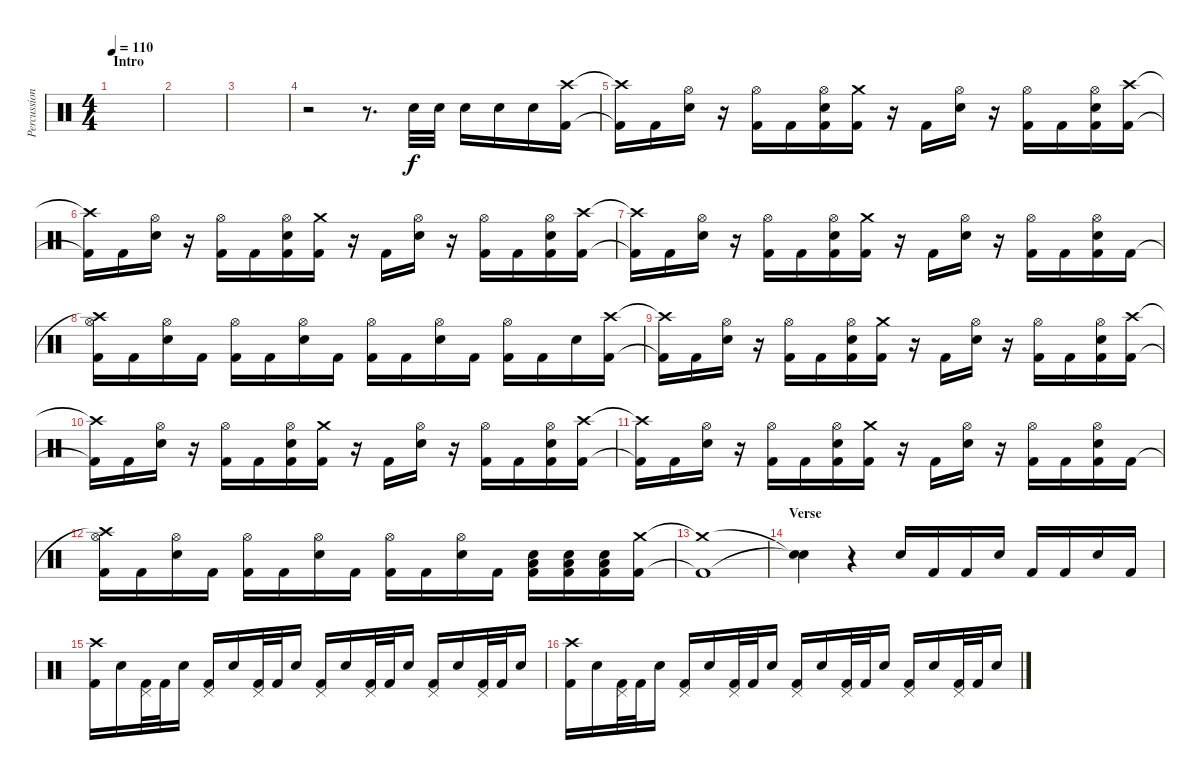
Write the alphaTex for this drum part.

\track ("Percussion" "Percussion") {instrument percussion}
\staff {score}
\articulation defaults
\ts (4 4)
\section ("" "Intro")
\tempo 110
\clef neutral
\ks c
|
|
|
r.2 r.8{d} "Snare (hit) 2".32 "Snare (hit) 2".32 "Snare (hit) 2".16 "Snare (hit) 2".16 "Snare (hit) 2".16 ("Crash high (hit)" "Kick (hit) 2").16 |
("Crash high (hit)"{t} "Kick (hit) 2"{t}).16 "Kick (hit) 2".16 ("Hi-Hat (open)" "Snare (hit) 2").16 r.16 ("Hi-Hat (open)" "Kick (hit) 2").16 "Kick (hit) 2".16 ("Hi-Hat (open)" "Snare (hit) 2" "Kick (hit) 2").16 ("Crash medium (hit)" "Kick (hit) 2").16 r.16 "Kick (hit) 2".16 ("Hi-Hat (open)" "Snare (hit) 2").16 r.16 ("Hi-Hat (open)" "Kick (hit) 2").16 "Kick (hit) 2".16 ("Hi-Hat (open)" "Snare (hit) 2" "Kick (hit) 2").16 ("Crash high (hit)" "Kick (hit) 2").16 |
("Crash high (hit)"{t} "Kick (hit) 2"{t}).16 "Kick (hit) 2".16 ("Hi-Hat (open)" "Snare (hit) 2").16 r.16 ("Hi-Hat (open)" "Kick (hit) 2").16 "Kick (hit) 2".16 ("Hi-Hat (open)" "Snare (hit) 2" "Kick (hit) 2").16 ("Crash medium (hit)" "Kick (hit) 2").16 r.16 "Kick (hit) 2".16 ("Hi-Hat (open)" "Snare (hit) 2").16 r.16 ("Hi-Hat (open)" "Kick (hit) 2").16 "Kick (hit) 2".16 ("Hi-Hat (open)" "Snare (hit) 2" "Kick (hit) 2").16 ("Crash high (hit)" "Kick (hit) 2").16 |
("Crash high (hit)"{t} "Kick (hit) 2"{t}).16 "Kick (hit) 2".16 ("Hi-Hat (open)" "Snare (hit) 2").16 r.16 ("Hi-Hat (open)" "Kick (hit) 2").16 "Kick (hit) 2".16 ("Hi-Hat (open)" "Snare (hit) 2" "Kick (hit) 2").16 ("Crash medium (hit)" "Kick (hit) 2").16 r.16 "Kick (hit) 2".16 ("Hi-Hat (open)" "Snare (hit) 2").16 r.16 ("Hi-Hat (open)" "Kick (hit) 2").16 "Kick (hit) 2".16 ("Hi-Hat (open)" "Snare (hit) 2" "Kick (hit) 2").16 "Kick (hit) 2".16 |
("Crash high (hit)"{t} "Hi-Hat (open)" "Kick (hit) 2").16 "Kick (hit) 2".16 ("Hi-Hat (open)" "Snare (hit) 2").16 "Kick (hit) 2".16 ("Hi-Hat (open)" "Kick (hit) 2").16 "Kick (hit) 2".16 ("Hi-Hat (open)" "Snare (hit) 2").16 "Kick (hit) 2".16 ("Hi-Hat (open)" "Kick (hit) 2").16 "Kick (hit) 2".16 ("Hi-Hat (open)" "Snare (hit) 2").16 "Kick (hit) 2".16 ("Hi-Hat (open)" "Kick (hit) 2").16 "Kick (hit) 2".16 "Snare (hit) 2".16 ("Crash high (hit)" "Kick (hit) 2").16 |
("Crash high (hit)"{t} "Kick (hit) 2"{t}).16 "Kick (hit) 2".16 ("Hi-Hat (open)" "Snare (hit) 2").16 r.16 ("Hi-Hat (open)" "Kick (hit) 2").16 "Kick (hit) 2".16 ("Hi-Hat (open)" "Snare (hit) 2" "Kick (hit) 2").16 ("Crash medium (hit)" "Kick (hit) 2").16 r.16 "Kick (hit) 2".16 ("Hi-Hat (open)" "Snare (hit) 2").16 r.16 ("Hi-Hat (open)" "Kick (hit) 2").16 "Kick (hit) 2".16 ("Hi-Hat (open)" "Snare (hit) 2" "Kick (hit) 2").16 ("Crash high (hit)" "Kick (hit) 2").16 |
("Crash high (hit)"{t} "Kick (hit) 2"{t}).16 "Kick (hit) 2".16 ("Hi-Hat (open)" "Snare (hit) 2").16 r.16 ("Hi-Hat (open)" "Kick (hit) 2").16 "Kick (hit) 2".16 ("Hi-Hat (open)" "Snare (hit) 2" "Kick (hit) 2").16 ("Crash medium (hit)" "Kick (hit) 2").16 r.16 "Kick (hit) 2".16 ("Hi-Hat (open)" "Snare (hit) 2").16 r.16 ("Hi-Hat (open)" "Kick (hit) 2").16 "Kick (hit) 2".16 ("Hi-Hat (open)" "Snare (hit) 2" "Kick (hit) 2").16 ("Crash high (hit)" "Kick (hit) 2").16 |
("Crash high (hit)"{t} "Kick (hit) 2"{t}).16 "Kick (hit) 2".16 ("Hi-Hat (open)" "Snare (hit) 2").16 r.16 ("Hi-Hat (open)" "Kick (hit) 2").16 "Kick (hit) 2".16 ("Hi-Hat (open)" "Snare (hit) 2" "Kick (hit) 2").16 ("Crash medium (hit)" "Kick (hit) 2").16 r.16 "Kick (hit) 2".16 ("Hi-Hat (open)" "Snare (hit) 2").16 r.16 ("Hi-Hat (open)" "Kick (hit) 2").16 "Kick (hit) 2".16 ("Hi-Hat (open)" "Snare (hit) 2" "Kick (hit) 2").16 "Kick (hit) 2".16 |
("Crash high (hit)"{t} "Hi-Hat (open)" "Kick (hit) 2").16 "Kick (hit) 2".16 ("Hi-Hat (open)" "Snare (hit) 2").16 "Kick (hit) 2".16 ("Hi-Hat (open)" "Kick (hit) 2").16 "Kick (hit) 2".16 ("Hi-Hat (open)" "Snare (hit) 2").16 "Kick (hit) 2".16 ("Hi-Hat (open)" "Kick (hit) 2").16 "Kick (hit) 2".16 ("Hi-Hat (open)" "Snare (hit) 2").16 "Kick (hit) 2".16 ("Snare (hit) 2" "Low Floor Tom (hit)" "Kick (hit) 2").16 ("Snare (hit) 2" "Low Floor Tom (hit)" "Kick (hit) 2").16 ("Snare (hit) 2" "Low Floor Tom (hit)" "Kick (hit) 2").16 ("Crash medium (hit)" "Kick (hit) 2").16 |
("Crash medium (hit)"{t} "Kick (hit) 2"{t}).1{volume 9} |
\section ("" "Verse")
("Snare (hit)"{t} "Snare (hit)"{t}).4 r.4 "Snare (hit) 2".16 "Kick (hit) 2".16 "Kick (hit) 2".16 "Snare (hit) 2".16 "Kick (hit) 2".16 "Kick (hit) 2".16 "Snare (hit) 2".16 "Kick (hit) 2".16 |
("Crash high (hit)" "Kick (hit) 2").16{volume 11} "Snare (hit) 2".16 ("Pedal Hi-Hat (hit)" "Kick (hit) 2").32 "Kick (hit) 2".32 "Snare (hit) 2".16 ("Pedal Hi-Hat (hit)" "Kick (hit) 2").16 "Snare (hit) 2".16 ("Pedal Hi-Hat (hit)" "Kick (hit) 2").32 "Kick (hit) 2".32 "Snare (hit) 2".16 ("Pedal Hi-Hat (hit)" "Kick (hit) 2").16 "Snare (hit) 2".16 ("Pedal Hi-Hat (hit)" "Kick (hit) 2").32 "Kick (hit) 2".32 "Snare (hit) 2".16 ("Pedal Hi-Hat (hit)" "Kick (hit) 2").16 "Snare (hit) 2".16 ("Pedal Hi-Hat (hit)" "Kick (hit) 2").32 "Kick (hit) 2".32 "Snare (hit) 2".16 |
("Crash high (hit)" "Kick (hit) 2").16 "Snare (hit) 2".16 ("Pedal Hi-Hat (hit)" "Kick (hit) 2").32 "Kick (hit) 2".32 "Snare (hit) 2".16 ("Pedal Hi-Hat (hit)" "Kick (hit) 2").16 "Snare (hit) 2".16 ("Pedal Hi-Hat (hit)" "Kick (hit) 2").32 "Kick (hit) 2".32 "Snare (hit) 2".16 ("Pedal Hi-Hat (hit)" "Kick (hit) 2").16 "Snare (hit) 2".16 ("Pedal Hi-Hat (hit)" "Kick (hit) 2").32 "Kick (hit) 2".32 "Snare (hit) 2".16 ("Pedal Hi-Hat (hit)" "Kick (hit) 2").16 "Snare (hit) 2".16 ("Pedal Hi-Hat (hit)" "Kick (hit) 2").32 "Kick (hit) 2".32 "Snare (hit) 2".16
